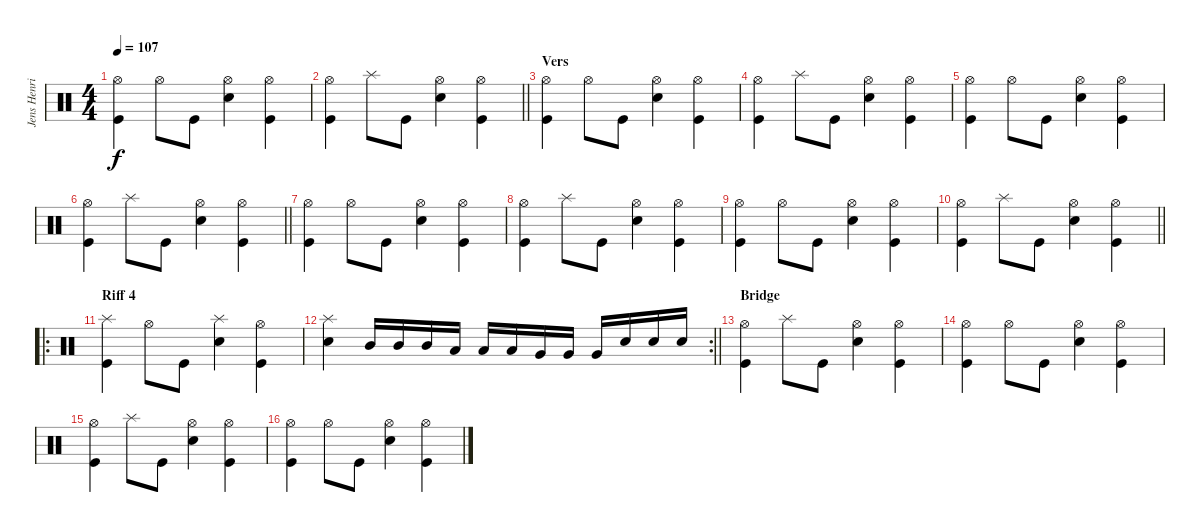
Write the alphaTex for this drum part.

\track ("Jens Henriksson" "Jens Henri") {instrument percussion}
\staff {score}
\articulation defaults
\ts (4 4)
\tempo 107
\clef neutral
\ks aminor
("Hi-Hat (open)" "Kick (hit)").4{dy f} "Hi-Hat (open)".8 "Kick (hit)".8 ("Hi-Hat (open)" "Snare (hit) 2").4 ("Hi-Hat (open)" "Kick (hit)").4 |
\barLineRight lightlight
("Hi-Hat (open)" "Kick (hit)").4 "Splash (hit)".8 "Kick (hit)".8 ("Hi-Hat (open)" "Snare (hit) 2").4 ("Hi-Hat (open)" "Kick (hit)").4 |
\section ("" "Vers")
("Hi-Hat (open)" "Kick (hit)").4 "Hi-Hat (open)".8 "Kick (hit)".8 ("Hi-Hat (open)" "Snare (hit) 2").4 ("Hi-Hat (open)" "Kick (hit)").4 |
("Hi-Hat (open)" "Kick (hit)").4 "Splash (hit)".8 "Kick (hit)".8 ("Hi-Hat (open)" "Snare (hit) 2").4 ("Hi-Hat (open)" "Kick (hit)").4 |
("Hi-Hat (open)" "Kick (hit)").4 "Hi-Hat (open)".8 "Kick (hit)".8 ("Hi-Hat (open)" "Snare (hit) 2").4 ("Hi-Hat (open)" "Kick (hit)").4 |
\barLineRight lightlight
("Hi-Hat (open)" "Kick (hit)").4 "Splash (hit)".8 "Kick (hit)".8 ("Hi-Hat (open)" "Snare (hit) 2").4 ("Hi-Hat (open)" "Kick (hit)").4 |
("Hi-Hat (open)" "Kick (hit)").4 "Hi-Hat (open)".8 "Kick (hit)".8 ("Hi-Hat (open)" "Snare (hit) 2").4 ("Hi-Hat (open)" "Kick (hit)").4 |
("Hi-Hat (open)" "Kick (hit)").4 "Splash (hit)".8 "Kick (hit)".8 ("Hi-Hat (open)" "Snare (hit) 2").4 ("Hi-Hat (open)" "Kick (hit)").4 |
("Hi-Hat (open)" "Kick (hit)").4 "Hi-Hat (open)".8 "Kick (hit)".8 ("Hi-Hat (open)" "Snare (hit) 2").4 ("Hi-Hat (open)" "Kick (hit)").4 |
\barLineRight lightlight
("Hi-Hat (open)" "Kick (hit)").4 "Splash (hit)".8 "Kick (hit)".8 ("Hi-Hat (open)" "Snare (hit) 2").4 ("Hi-Hat (open)" "Kick (hit)").4 |
\ro
\section ("" "Riff 4")
("Splash (hit)" "Kick (hit)").4 "Hi-Hat (open)".8 "Kick (hit)".8 ("Splash (hit)" "Snare (hit) 2").4 ("Hi-Hat (open)" "Kick (hit)").4 |
\rc 2
\barLineRight lightlight
("Splash (hit)" "Snare (hit) 2").4 "Mid Tom (hit)".16 "Mid Tom (hit)".16 "Mid Tom (hit)".16 "Low Tom (hit)".16 "Low Tom (hit)".16 "Low Tom (hit)".16 "Very Low Tom (hit)".16 "Very Low Tom (hit)".16 "Very Low Tom (hit)".16 "Snare (hit) 2".16 "Snare (hit) 2".16 "Snare (hit) 2".16 |
\section ("" "Bridge")
("Hi-Hat (open)" "Kick (hit)").4 "Splash (hit)".8 "Kick (hit)".8 ("Hi-Hat (open)" "Snare (hit) 2").4 ("Hi-Hat (open)" "Kick (hit)").4 |
("Hi-Hat (open)" "Kick (hit)").4 "Hi-Hat (open)".8 "Kick (hit)".8 ("Hi-Hat (open)" "Snare (hit) 2").4 ("Hi-Hat (open)" "Kick (hit)").4 |
("Hi-Hat (open)" "Kick (hit)").4 "Splash (hit)".8 "Kick (hit)".8 ("Hi-Hat (open)" "Snare (hit) 2").4 ("Hi-Hat (open)" "Kick (hit)").4 |
("Hi-Hat (open)" "Kick (hit)").4 "Hi-Hat (open)".8 "Kick (hit)".8 ("Hi-Hat (open)" "Snare (hit) 2").4 ("Hi-Hat (open)" "Kick (hit)").4
